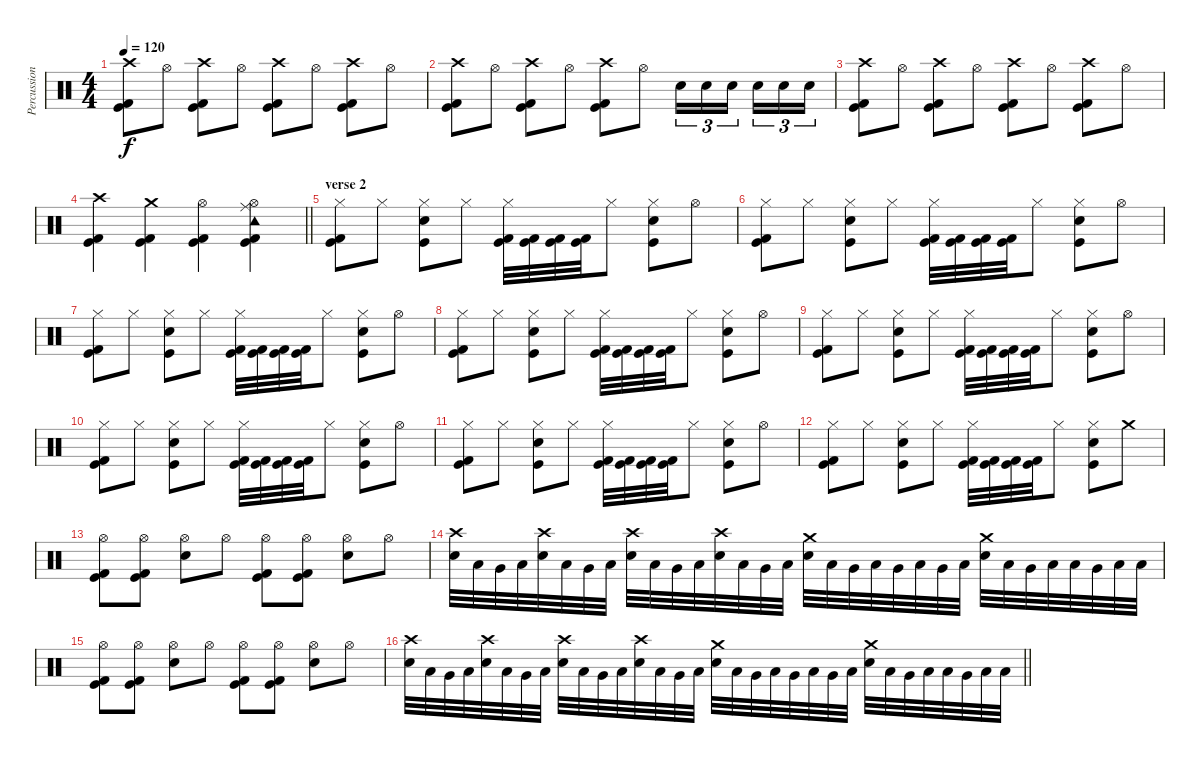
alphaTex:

\track ("Percussion" "Percussion") {instrument percussion}
\staff {score}
\articulation defaults
\ts (4 4)
\tempo 120
\clef neutral
\ks c
("Crash high (hit)" "Kick (hit) 2" "Kick (hit)").8{dy f} "Hi-Hat (open)".8 ("Crash high (hit)" "Kick (hit) 2" "Kick (hit)").8 "Hi-Hat (open)".8 ("Crash high (hit)" "Kick (hit) 2" "Kick (hit)").8 "Hi-Hat (open)".8 ("Crash high (hit)" "Kick (hit) 2" "Kick (hit)").8 "Hi-Hat (open)".8 |
("Crash high (hit)" "Kick (hit) 2" "Kick (hit)").8 "Hi-Hat (open)".8 ("Crash high (hit)" "Kick (hit) 2" "Kick (hit)").8 "Hi-Hat (open)".8 ("Crash high (hit)" "Kick (hit) 2" "Kick (hit)").8 "Hi-Hat (open)".8 "Electric Snare (hit)".16{tu (3 2)} "Electric Snare (hit)".16{tu (3 2)} "Electric Snare (hit)".16{tu (3 2) beam splitsecondary} "Electric Snare (hit)".16{tu (3 2)} "Electric Snare (hit)".16{tu (3 2)} "Electric Snare (hit)".16{tu (3 2)} |
("Crash high (hit)" "Kick (hit) 2" "Kick (hit)").8 "Hi-Hat (open)".8 ("Crash high (hit)" "Kick (hit) 2" "Kick (hit)").8 "Hi-Hat (open)".8 ("Crash high (hit)" "Kick (hit) 2" "Kick (hit)").8 "Hi-Hat (open)".8 ("Crash high (hit)" "Kick (hit) 2" "Kick (hit)").8 "Hi-Hat (open)".8 |
\barLineRight lightlight
("Crash high (hit)" "Kick (hit)" "Kick (hit) 2").4 ("Crash medium (hit)" "Kick (hit)" "Kick (hit) 2").4 ("Hi-Hat (open)" "Kick (hit)" "Kick (hit) 2").4 ("Tambourine (hit)" "Hi-Hat (open)" "Ride (middle)" "Kick (hit)" "Kick (hit) 2").4 |
\section ("" "verse 2")
("Hi-Hat (closed)" "Kick (hit) 2" "Kick (hit)").8 "Hi-Hat (closed)".8 ("Hi-Hat (closed)" "Electric Snare (hit)" "Kick (hit)").8 "Hi-Hat (closed)".8 ("Hi-Hat (closed)" "Kick (hit) 2" "Kick (hit)").32 ("Kick (hit) 2" "Kick (hit)").32 ("Kick (hit) 2" "Kick (hit)").32 ("Kick (hit) 2" "Kick (hit)").32 "Hi-Hat (closed)".8 ("Hi-Hat (closed)" "Electric Snare (hit)" "Kick (hit)").8 "Hi-Hat (open)".8 |
("Hi-Hat (closed)" "Kick (hit) 2" "Kick (hit)").8 "Hi-Hat (closed)".8 ("Hi-Hat (closed)" "Electric Snare (hit)" "Kick (hit)").8 "Hi-Hat (closed)".8 ("Hi-Hat (closed)" "Kick (hit) 2" "Kick (hit)").32 ("Kick (hit) 2" "Kick (hit)").32 ("Kick (hit) 2" "Kick (hit)").32 ("Kick (hit) 2" "Kick (hit)").32 "Hi-Hat (closed)".8 ("Hi-Hat (closed)" "Electric Snare (hit)" "Kick (hit)").8 "Hi-Hat (open)".8 |
("Hi-Hat (closed)" "Kick (hit) 2" "Kick (hit)").8 "Hi-Hat (closed)".8 ("Hi-Hat (closed)" "Electric Snare (hit)" "Kick (hit)").8 "Hi-Hat (closed)".8 ("Hi-Hat (closed)" "Kick (hit) 2" "Kick (hit)").32 ("Kick (hit) 2" "Kick (hit)").32 ("Kick (hit) 2" "Kick (hit)").32 ("Kick (hit) 2" "Kick (hit)").32 "Hi-Hat (closed)".8 ("Hi-Hat (closed)" "Electric Snare (hit)" "Kick (hit)").8 "Hi-Hat (open)".8 |
("Hi-Hat (closed)" "Kick (hit) 2" "Kick (hit)").8 "Hi-Hat (closed)".8 ("Hi-Hat (closed)" "Electric Snare (hit)" "Kick (hit)").8 "Hi-Hat (closed)".8 ("Hi-Hat (closed)" "Kick (hit) 2" "Kick (hit)").32 ("Kick (hit) 2" "Kick (hit)").32 ("Kick (hit) 2" "Kick (hit)").32 ("Kick (hit) 2" "Kick (hit)").32 "Hi-Hat (closed)".8 ("Hi-Hat (closed)" "Electric Snare (hit)" "Kick (hit)").8 "Hi-Hat (open)".8 |
("Hi-Hat (closed)" "Kick (hit) 2" "Kick (hit)").8 "Hi-Hat (closed)".8 ("Hi-Hat (closed)" "Electric Snare (hit)" "Kick (hit)").8 "Hi-Hat (closed)".8 ("Hi-Hat (closed)" "Kick (hit) 2" "Kick (hit)").32 ("Kick (hit) 2" "Kick (hit)").32 ("Kick (hit) 2" "Kick (hit)").32 ("Kick (hit) 2" "Kick (hit)").32 "Hi-Hat (closed)".8 ("Hi-Hat (closed)" "Electric Snare (hit)" "Kick (hit)").8 "Hi-Hat (open)".8 |
("Hi-Hat (closed)" "Kick (hit) 2" "Kick (hit)").8 "Hi-Hat (closed)".8 ("Hi-Hat (closed)" "Electric Snare (hit)" "Kick (hit)").8 "Hi-Hat (closed)".8 ("Hi-Hat (closed)" "Kick (hit) 2" "Kick (hit)").32 ("Kick (hit) 2" "Kick (hit)").32 ("Kick (hit) 2" "Kick (hit)").32 ("Kick (hit) 2" "Kick (hit)").32 "Hi-Hat (closed)".8 ("Hi-Hat (closed)" "Electric Snare (hit)" "Kick (hit)").8 "Hi-Hat (open)".8 |
("Hi-Hat (closed)" "Kick (hit) 2" "Kick (hit)").8 "Hi-Hat (closed)".8 ("Hi-Hat (closed)" "Electric Snare (hit)" "Kick (hit)").8 "Hi-Hat (closed)".8 ("Hi-Hat (closed)" "Kick (hit) 2" "Kick (hit)").32 ("Kick (hit) 2" "Kick (hit)").32 ("Kick (hit) 2" "Kick (hit)").32 ("Kick (hit) 2" "Kick (hit)").32 "Hi-Hat (closed)".8 ("Hi-Hat (closed)" "Electric Snare (hit)" "Kick (hit)").8 "Hi-Hat (open)".8 |
("Hi-Hat (closed)" "Kick (hit) 2" "Kick (hit)").8 "Hi-Hat (closed)".8 ("Hi-Hat (closed)" "Electric Snare (hit)" "Kick (hit)").8 "Hi-Hat (closed)".8 ("Hi-Hat (closed)" "Kick (hit) 2" "Kick (hit)").32 ("Kick (hit) 2" "Kick (hit)").32 ("Kick (hit) 2" "Kick (hit)").32 ("Kick (hit) 2" "Kick (hit)").32 "Hi-Hat (closed)".8 ("Hi-Hat (closed)" "Electric Snare (hit)" "Kick (hit)").8 "Crash medium (hit)".8 |
("Hi-Hat (open)" "Kick (hit) 2" "Kick (hit)").8 ("Hi-Hat (open)" "Kick (hit) 2" "Kick (hit)").8 ("Hi-Hat (open)" "Electric Snare (hit)").8 "Hi-Hat (open)".8 ("Hi-Hat (open)" "Kick (hit) 2" "Kick (hit)").8 ("Hi-Hat (open)" "Kick (hit) 2" "Kick (hit)").8 ("Hi-Hat (open)" "Electric Snare (hit)").8 "Hi-Hat (open)".8 |
("Crash high (hit)" "Electric Snare (hit)").32 "Low Tom (hit)".32 "Very Low Tom (hit)".32 "Low Floor Tom (hit)".32 ("Crash high (hit)" "Electric Snare (hit)").32 "Low Tom (hit)".32 "Very Low Tom (hit)".32 "Low Floor Tom (hit)".32 ("Crash high (hit)" "Electric Snare (hit)").32 "Low Tom (hit)".32 "Very Low Tom (hit)".32 "Low Floor Tom (hit)".32 ("Crash high (hit)" "Electric Snare (hit)").32 "Low Tom (hit)".32 "Very Low Tom (hit)".32 "Low Floor Tom (hit)".32 ("Crash medium (hit)" "Electric Snare (hit)").32 "Low Tom (hit)".32 "Very Low Tom (hit)".32 "Low Tom (hit)".32 "Very Low Tom (hit)".32 "Low Floor Tom (hit)".32 "Very Low Tom (hit)".32 "Low Tom (hit)".32 ("Crash medium (hit)" "Electric Snare (hit)").32 "Low Tom (hit)".32 "Very Low Tom (hit)".32 "Low Tom (hit)".32 "Low Floor Tom (hit)".32 "Very Low Tom (hit)".32 "Low Tom (hit)".32 "Low Floor Tom (hit)".32 |
("Hi-Hat (open)" "Kick (hit) 2" "Kick (hit)").8 ("Hi-Hat (open)" "Kick (hit) 2" "Kick (hit)").8 ("Hi-Hat (open)" "Electric Snare (hit)").8 "Hi-Hat (open)".8 ("Hi-Hat (open)" "Kick (hit) 2" "Kick (hit)").8 ("Hi-Hat (open)" "Kick (hit) 2" "Kick (hit)").8 ("Hi-Hat (open)" "Electric Snare (hit)").8 "Hi-Hat (open)".8 |
\barLineRight lightlight
("Crash high (hit)" "Electric Snare (hit)").32 "Low Tom (hit)".32 "Very Low Tom (hit)".32 "Low Floor Tom (hit)".32 ("Crash high (hit)" "Electric Snare (hit)").32 "Low Tom (hit)".32 "Very Low Tom (hit)".32 "Low Floor Tom (hit)".32 ("Crash high (hit)" "Electric Snare (hit)").32 "Low Tom (hit)".32 "Very Low Tom (hit)".32 "Low Floor Tom (hit)".32 ("Crash high (hit)" "Electric Snare (hit)").32 "Low Tom (hit)".32 "Very Low Tom (hit)".32 "Low Floor Tom (hit)".32 ("Crash medium (hit)" "Electric Snare (hit)").32 "Low Tom (hit)".32 "Very Low Tom (hit)".32 "Low Tom (hit)".32 "Very Low Tom (hit)".32 "Low Floor Tom (hit)".32 "Very Low Tom (hit)".32 "Low Tom (hit)".32 ("Crash medium (hit)" "Electric Snare (hit)").32 "Low Tom (hit)".32 "Very Low Tom (hit)".32 "Low Tom (hit)".32 "Low Floor Tom (hit)".32 "Very Low Tom (hit)".32 "Low Tom (hit)".32 "Low Floor Tom (hit)".32
